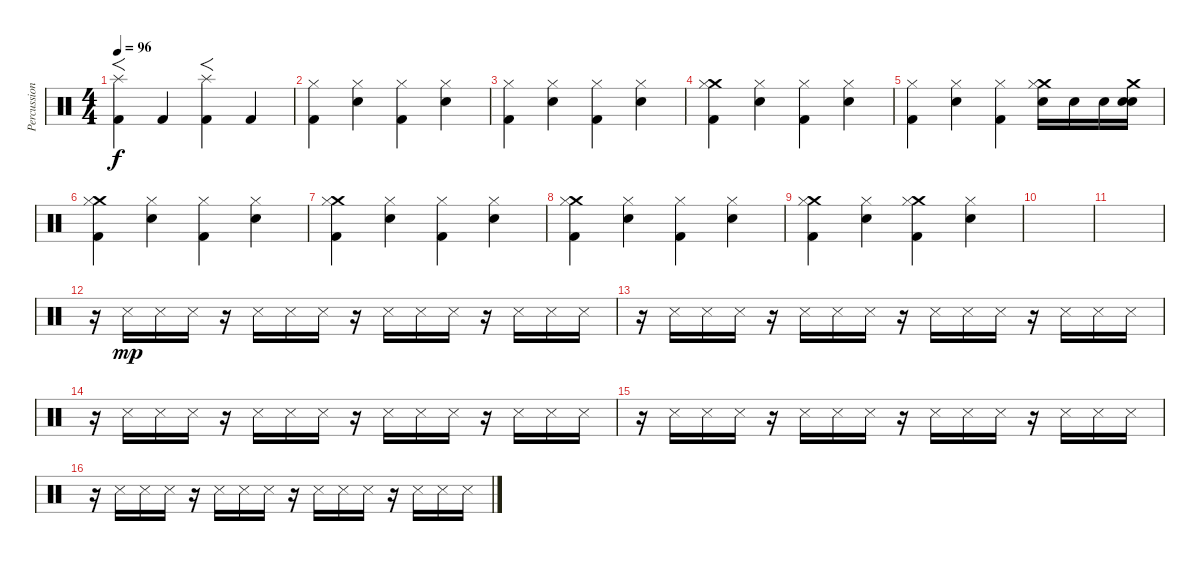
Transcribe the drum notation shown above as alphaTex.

\track ("Percussion" "Percussion") {instrument percussion bank 255}
\staff {score}
\articulation defaults
\ts (4 4)
\tempo 96
\clef neutral
\ks c
("Splash (hit)" "Kick (hit) 2").4{f dy f} "Kick (hit) 2".4 ("Splash (hit)" "Kick (hit) 2").4{f} "Kick (hit) 2".4 |
("Hi-Hat (closed)" "Kick (hit) 2").4 ("Hi-Hat (closed)" "Electric Snare (hit)").4 ("Hi-Hat (closed)" "Kick (hit) 2").4 ("Hi-Hat (closed)" "Electric Snare (hit)").4 |
("Hi-Hat (closed)" "Kick (hit) 2").4 ("Hi-Hat (closed)" "Electric Snare (hit)").4 ("Hi-Hat (closed)" "Kick (hit) 2").4 ("Hi-Hat (closed)" "Electric Snare (hit)").4 |
("Crash medium (hit)" "Hi-Hat (closed)" "Kick (hit) 2").4 ("Hi-Hat (closed)" "Electric Snare (hit)").4 ("Hi-Hat (closed)" "Kick (hit) 2").4 ("Hi-Hat (closed)" "Electric Snare (hit)").4 |
("Hi-Hat (closed)" "Kick (hit) 2").4 ("Hi-Hat (closed)" "Electric Snare (hit)").4 ("Hi-Hat (closed)" "Kick (hit) 2").4 ("Crash medium (hit)" "Hi-Hat (closed)" "Electric Snare (hit)").16 "Electric Snare (hit)".16 "Electric Snare (hit)".16 ("Crash medium (hit)" "Snare (hit)" "Electric Snare (hit)").16 |
("Crash medium (hit)" "Hi-Hat (closed)" "Kick (hit) 2").4 ("Hi-Hat (closed)" "Electric Snare (hit)").4 ("Hi-Hat (closed)" "Kick (hit) 2").4 ("Hi-Hat (closed)" "Electric Snare (hit)").4 |
("Crash medium (hit)" "Hi-Hat (closed)" "Kick (hit) 2").4 ("Hi-Hat (closed)" "Electric Snare (hit)").4 ("Hi-Hat (closed)" "Kick (hit) 2").4 ("Hi-Hat (closed)" "Electric Snare (hit)").4 |
("Crash medium (hit)" "Hi-Hat (closed)" "Kick (hit) 2").4 ("Hi-Hat (closed)" "Electric Snare (hit)").4 ("Hi-Hat (closed)" "Kick (hit) 2").4 ("Hi-Hat (closed)" "Electric Snare (hit)").4 |
("Crash medium (hit)" "Hi-Hat (closed)" "Kick (hit) 2").4 ("Hi-Hat (closed)" "Electric Snare (hit)").4 ("Crash medium (hit)" "Hi-Hat (closed)" "Kick (hit) 2").4 ("Hi-Hat (closed)" "Electric Snare (hit)").4 |
|
|
r.16 "Snare (side stick) 3".16{dy mp} "Snare (side stick) 3".16 "Snare (side stick) 3".16 r.16 "Snare (side stick) 3".16 "Snare (side stick) 3".16 "Snare (side stick) 3".16 r.16 "Snare (side stick) 3".16 "Snare (side stick) 3".16 "Snare (side stick) 3".16 r.16 "Snare (side stick) 3".16 "Snare (side stick) 3".16 "Snare (side stick) 3".16 |
r.16 "Snare (side stick) 3".16 "Snare (side stick) 3".16 "Snare (side stick) 3".16 r.16 "Snare (side stick) 3".16 "Snare (side stick) 3".16 "Snare (side stick) 3".16 r.16 "Snare (side stick) 3".16 "Snare (side stick) 3".16 "Snare (side stick) 3".16 r.16 "Snare (side stick) 3".16 "Snare (side stick) 3".16 "Snare (side stick) 3".16 |
r.16 "Snare (side stick) 3".16 "Snare (side stick) 3".16 "Snare (side stick) 3".16 r.16 "Snare (side stick) 3".16 "Snare (side stick) 3".16 "Snare (side stick) 3".16 r.16 "Snare (side stick) 3".16 "Snare (side stick) 3".16 "Snare (side stick) 3".16 r.16 "Snare (side stick) 3".16 "Snare (side stick) 3".16 "Snare (side stick) 3".16 |
r.16 "Snare (side stick) 3".16 "Snare (side stick) 3".16 "Snare (side stick) 3".16 r.16 "Snare (side stick) 3".16 "Snare (side stick) 3".16 "Snare (side stick) 3".16 r.16 "Snare (side stick) 3".16 "Snare (side stick) 3".16 "Snare (side stick) 3".16 r.16 "Snare (side stick) 3".16 "Snare (side stick) 3".16 "Snare (side stick) 3".16 |
r.16 "Snare (side stick) 3".16 "Snare (side stick) 3".16 "Snare (side stick) 3".16 r.16 "Snare (side stick) 3".16 "Snare (side stick) 3".16 "Snare (side stick) 3".16 r.16 "Snare (side stick) 3".16 "Snare (side stick) 3".16 "Snare (side stick) 3".16 r.16 "Snare (side stick) 3".16 "Snare (side stick) 3".16 "Snare (side stick) 3".16
